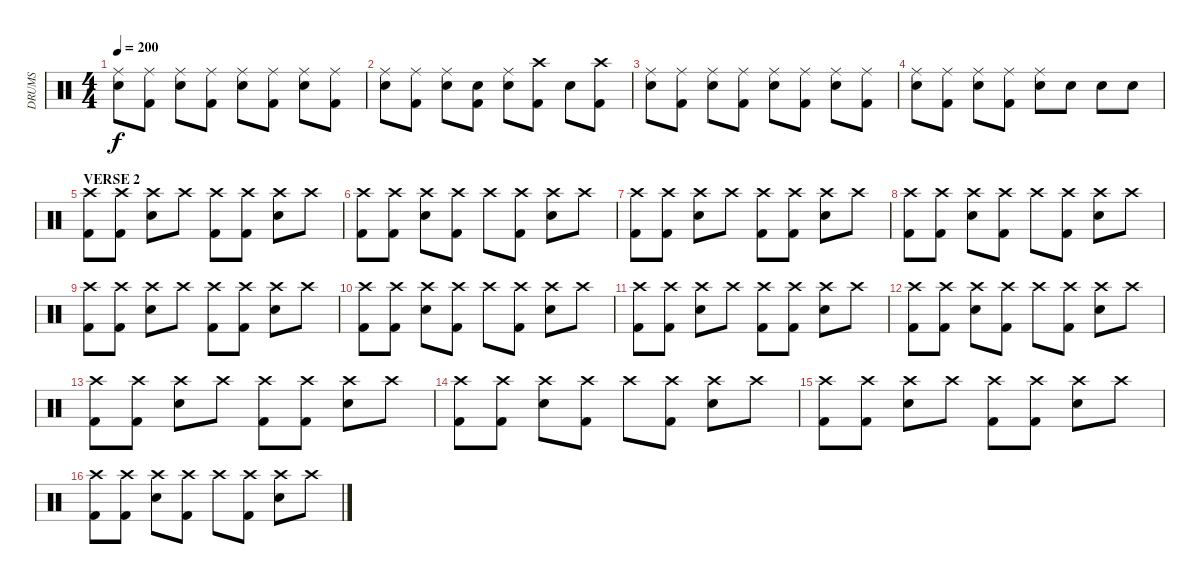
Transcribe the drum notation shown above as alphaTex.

\track ("DRUMS" "DRUMS") {instrument percussion}
\staff {score}
\articulation defaults
\ts (4 4)
\tempo 200
\clef neutral
\ks c
("Ride (middle)" "Snare (hit) 2").8{dy f} ("Ride (middle)" "Kick (hit) 2").8 ("Ride (middle)" "Snare (hit) 2").8 ("Ride (middle)" "Kick (hit) 2").8 ("Ride (middle)" "Snare (hit) 2").8 ("Ride (middle)" "Kick (hit) 2").8 ("Ride (middle)" "Snare (hit) 2").8 ("Ride (middle)" "Kick (hit) 2").8 |
("Ride (middle)" "Snare (hit) 2").8 ("Ride (middle)" "Kick (hit) 2").8 ("Ride (middle)" "Snare (hit) 2").8 ("Snare (hit)" "Kick (hit) 2").8 ("Ride (middle)" "Snare (hit) 2").8 ("Crash high (hit)" "Kick (hit) 2").8 "Snare (hit) 2".8 ("Crash high (hit)" "Kick (hit) 2").8 |
("Ride (middle)" "Snare (hit) 2").8 ("Ride (middle)" "Kick (hit) 2").8 ("Ride (middle)" "Snare (hit) 2").8 ("Ride (middle)" "Kick (hit) 2").8 ("Ride (middle)" "Snare (hit) 2").8 ("Ride (middle)" "Kick (hit) 2").8 ("Ride (middle)" "Snare (hit) 2").8 ("Ride (middle)" "Kick (hit) 2").8 |
("Ride (middle)" "Snare (hit) 2").8 ("Ride (middle)" "Kick (hit) 2").8 ("Ride (middle)" "Snare (hit) 2").8 ("Ride (middle)" "Kick (hit) 2").8 ("Ride (middle)" "Snare (hit) 2").8 "Snare (hit) 2".8 "Snare (hit) 2".8 "Snare (hit) 2".8 |
\section ("" "VERSE 2")
("Crash high (hit)" "Kick (hit) 2").8 ("Crash high (hit)" "Kick (hit) 2").8 ("Crash high (hit)" "Snare (hit) 2").8 "Crash high (hit)".8 ("Crash high (hit)" "Kick (hit) 2").8 ("Crash high (hit)" "Kick (hit) 2").8 ("Crash high (hit)" "Snare (hit) 2").8 "Crash high (hit)".8 |
("Crash high (hit)" "Kick (hit) 2").8 ("Crash high (hit)" "Kick (hit) 2").8 ("Crash high (hit)" "Snare (hit) 2").8 ("Crash high (hit)" "Kick (hit) 2").8 "Crash high (hit)".8 ("Crash high (hit)" "Kick (hit) 2").8 ("Crash high (hit)" "Snare (hit) 2").8 "Crash high (hit)".8 |
("Crash high (hit)" "Kick (hit) 2").8 ("Crash high (hit)" "Kick (hit) 2").8 ("Crash high (hit)" "Snare (hit) 2").8 "Crash high (hit)".8 ("Crash high (hit)" "Kick (hit) 2").8 ("Crash high (hit)" "Kick (hit) 2").8 ("Crash high (hit)" "Snare (hit) 2").8 "Crash high (hit)".8 |
("Crash high (hit)" "Kick (hit) 2").8 ("Crash high (hit)" "Kick (hit) 2").8 ("Crash high (hit)" "Snare (hit) 2").8 ("Crash high (hit)" "Kick (hit) 2").8 "Crash high (hit)".8 ("Crash high (hit)" "Kick (hit) 2").8 ("Crash high (hit)" "Snare (hit) 2").8 "Crash high (hit)".8 |
("Crash high (hit)" "Kick (hit) 2").8 ("Crash high (hit)" "Kick (hit) 2").8 ("Crash high (hit)" "Snare (hit) 2").8 "Crash high (hit)".8 ("Crash high (hit)" "Kick (hit) 2").8 ("Crash high (hit)" "Kick (hit) 2").8 ("Crash high (hit)" "Snare (hit) 2").8 "Crash high (hit)".8 |
("Crash high (hit)" "Kick (hit) 2").8 ("Crash high (hit)" "Kick (hit) 2").8 ("Crash high (hit)" "Snare (hit) 2").8 ("Crash high (hit)" "Kick (hit) 2").8 "Crash high (hit)".8 ("Crash high (hit)" "Kick (hit) 2").8 ("Crash high (hit)" "Snare (hit) 2").8 "Crash high (hit)".8 |
("Crash high (hit)" "Kick (hit) 2").8 ("Crash high (hit)" "Kick (hit) 2").8 ("Crash high (hit)" "Snare (hit) 2").8 "Crash high (hit)".8 ("Crash high (hit)" "Kick (hit) 2").8 ("Crash high (hit)" "Kick (hit) 2").8 ("Crash high (hit)" "Snare (hit) 2").8 "Crash high (hit)".8 |
("Crash high (hit)" "Kick (hit) 2").8 ("Crash high (hit)" "Kick (hit) 2").8 ("Crash high (hit)" "Snare (hit) 2").8 ("Crash high (hit)" "Kick (hit) 2").8 "Crash high (hit)".8 ("Crash high (hit)" "Kick (hit) 2").8 ("Crash high (hit)" "Snare (hit) 2").8 "Crash high (hit)".8 |
("Crash high (hit)" "Kick (hit) 2").8 ("Crash high (hit)" "Kick (hit) 2").8 ("Crash high (hit)" "Snare (hit) 2").8 "Crash high (hit)".8 ("Crash high (hit)" "Kick (hit) 2").8 ("Crash high (hit)" "Kick (hit) 2").8 ("Crash high (hit)" "Snare (hit) 2").8 "Crash high (hit)".8 |
("Crash high (hit)" "Kick (hit) 2").8 ("Crash high (hit)" "Kick (hit) 2").8 ("Crash high (hit)" "Snare (hit) 2").8 ("Crash high (hit)" "Kick (hit) 2").8 "Crash high (hit)".8 ("Crash high (hit)" "Kick (hit) 2").8 ("Crash high (hit)" "Snare (hit) 2").8 "Crash high (hit)".8 |
("Crash high (hit)" "Kick (hit) 2").8 ("Crash high (hit)" "Kick (hit) 2").8 ("Crash high (hit)" "Snare (hit) 2").8 "Crash high (hit)".8 ("Crash high (hit)" "Kick (hit) 2").8 ("Crash high (hit)" "Kick (hit) 2").8 ("Crash high (hit)" "Snare (hit) 2").8 "Crash high (hit)".8 |
("Crash high (hit)" "Kick (hit) 2").8 ("Crash high (hit)" "Kick (hit) 2").8 ("Crash high (hit)" "Snare (hit) 2").8 ("Crash high (hit)" "Kick (hit) 2").8 "Crash high (hit)".8 ("Crash high (hit)" "Kick (hit) 2").8 ("Crash high (hit)" "Snare (hit) 2").8 "Crash high (hit)".8
